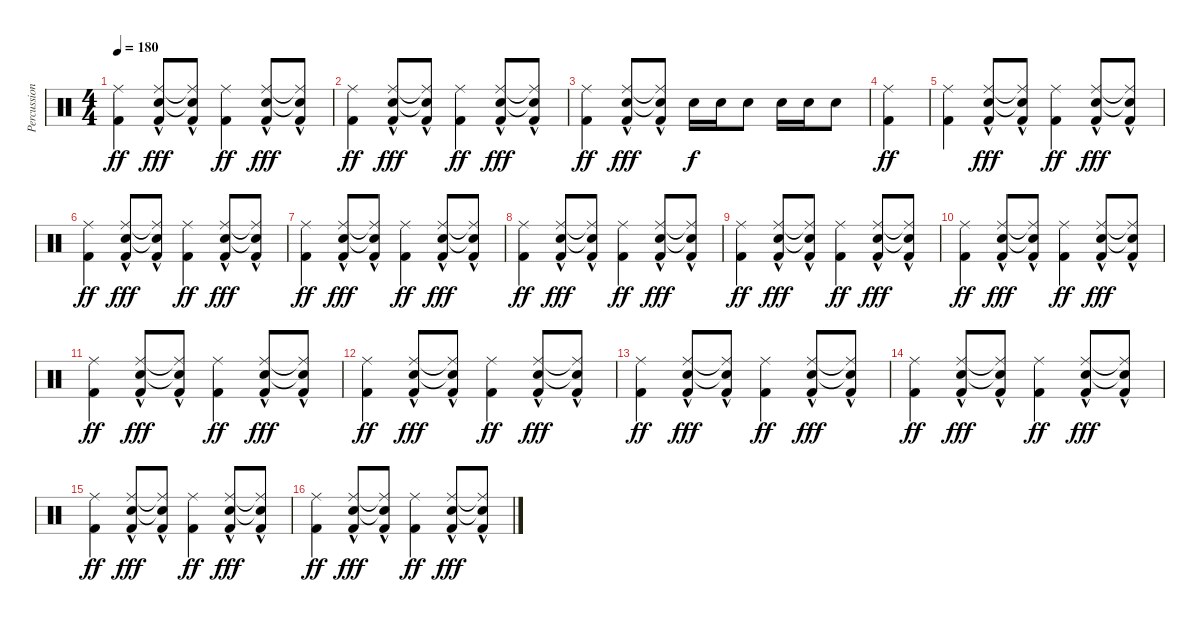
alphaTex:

\track ("Percussion" "Percussion") {instrument percussion}
\staff {score}
\articulation defaults
\ts (4 4)
\tempo 180
\clef neutral
\ks c
("Kick (hit) 2" "Ride (middle)").4{dy ff} ("Electric Snare (hit)" "Ride (middle)" "Kick (hit) 2"{hac}).8{dy fff} ("Electric Snare (hit)"{t} "Ride (middle)"{t} "Kick (hit) 2"{hac}).8 ("Kick (hit) 2" "Ride (middle)").4{dy ff} ("Electric Snare (hit)" "Ride (middle)" "Kick (hit) 2"{hac}).8{dy fff} ("Electric Snare (hit)"{t} "Ride (middle)"{t} "Kick (hit) 2"{hac}).8 |
("Kick (hit) 2" "Ride (middle)").4{dy ff} ("Electric Snare (hit)" "Ride (middle)" "Kick (hit) 2"{hac}).8{dy fff} ("Electric Snare (hit)"{t} "Ride (middle)"{t} "Kick (hit) 2"{hac}).8 ("Kick (hit) 2" "Ride (middle)").4{dy ff} ("Electric Snare (hit)" "Ride (middle)" "Kick (hit) 2"{hac}).8{dy fff} ("Electric Snare (hit)"{t} "Ride (middle)"{t} "Kick (hit) 2"{hac}).8 |
("Kick (hit) 2" "Ride (middle)").4{dy ff} ("Electric Snare (hit)" "Ride (middle)" "Kick (hit) 2"{hac}).8{dy fff} ("Electric Snare (hit)"{t} "Ride (middle)"{t} "Kick (hit) 2"{hac}).8 "Electric Snare (hit)".16{dy f} "Electric Snare (hit)".16 "Electric Snare (hit)".8 "Electric Snare (hit)".16 "Electric Snare (hit)".16 "Electric Snare (hit)".8 |
("Kick (hit) 2" "Ride (middle)").4{dy ff} |
("Kick (hit) 2" "Ride (middle)").4 ("Electric Snare (hit)" "Ride (middle)" "Kick (hit) 2"{hac}).8{dy fff} ("Electric Snare (hit)"{t} "Ride (middle)"{t} "Kick (hit) 2"{hac}).8 ("Kick (hit) 2" "Ride (middle)").4{dy ff} ("Electric Snare (hit)" "Ride (middle)" "Kick (hit) 2"{hac}).8{dy fff} ("Electric Snare (hit)"{t} "Ride (middle)"{t} "Kick (hit) 2"{hac}).8 |
("Kick (hit) 2" "Ride (middle)").4{dy ff} ("Electric Snare (hit)" "Ride (middle)" "Kick (hit) 2"{hac}).8{dy fff} ("Electric Snare (hit)"{t} "Ride (middle)"{t} "Kick (hit) 2"{hac}).8 ("Kick (hit) 2" "Ride (middle)").4{dy ff} ("Electric Snare (hit)" "Ride (middle)" "Kick (hit) 2"{hac}).8{dy fff} ("Electric Snare (hit)"{t} "Ride (middle)"{t} "Kick (hit) 2"{hac}).8 |
("Kick (hit) 2" "Ride (middle)").4{dy ff} ("Electric Snare (hit)" "Ride (middle)" "Kick (hit) 2"{hac}).8{dy fff} ("Electric Snare (hit)"{t} "Ride (middle)"{t} "Kick (hit) 2"{hac}).8 ("Kick (hit) 2" "Ride (middle)").4{dy ff} ("Electric Snare (hit)" "Ride (middle)" "Kick (hit) 2"{hac}).8{dy fff} ("Electric Snare (hit)"{t} "Ride (middle)"{t} "Kick (hit) 2"{hac}).8 |
("Kick (hit) 2" "Ride (middle)").4{dy ff} ("Electric Snare (hit)" "Ride (middle)" "Kick (hit) 2"{hac}).8{dy fff} ("Electric Snare (hit)"{t} "Ride (middle)"{t} "Kick (hit) 2"{hac}).8 ("Kick (hit) 2" "Ride (middle)").4{dy ff} ("Electric Snare (hit)" "Ride (middle)" "Kick (hit) 2"{hac}).8{dy fff} ("Electric Snare (hit)"{t} "Ride (middle)"{t} "Kick (hit) 2"{hac}).8 |
("Kick (hit) 2" "Ride (middle)").4{dy ff} ("Electric Snare (hit)" "Ride (middle)" "Kick (hit) 2"{hac}).8{dy fff} ("Electric Snare (hit)"{t} "Ride (middle)"{t} "Kick (hit) 2"{hac}).8 ("Kick (hit) 2" "Ride (middle)").4{dy ff} ("Electric Snare (hit)" "Ride (middle)" "Kick (hit) 2"{hac}).8{dy fff} ("Electric Snare (hit)"{t} "Ride (middle)"{t} "Kick (hit) 2"{hac}).8 |
("Kick (hit) 2" "Ride (middle)").4{dy ff} ("Electric Snare (hit)" "Ride (middle)" "Kick (hit) 2"{hac}).8{dy fff} ("Electric Snare (hit)"{t} "Ride (middle)"{t} "Kick (hit) 2"{hac}).8 ("Kick (hit) 2" "Ride (middle)").4{dy ff} ("Electric Snare (hit)" "Ride (middle)" "Kick (hit) 2"{hac}).8{dy fff} ("Electric Snare (hit)"{t} "Ride (middle)"{t} "Kick (hit) 2"{hac}).8 |
("Kick (hit) 2" "Ride (middle)").4{dy ff} ("Electric Snare (hit)" "Ride (middle)" "Kick (hit) 2"{hac}).8{dy fff} ("Electric Snare (hit)"{t} "Ride (middle)"{t} "Kick (hit) 2"{hac}).8 ("Kick (hit) 2" "Ride (middle)").4{dy ff} ("Electric Snare (hit)" "Ride (middle)" "Kick (hit) 2"{hac}).8{dy fff} ("Electric Snare (hit)"{t} "Ride (middle)"{t} "Kick (hit) 2"{hac}).8 |
("Kick (hit) 2" "Ride (middle)").4{dy ff} ("Electric Snare (hit)" "Ride (middle)" "Kick (hit) 2"{hac}).8{dy fff} ("Electric Snare (hit)"{t} "Ride (middle)"{t} "Kick (hit) 2"{hac}).8 ("Kick (hit) 2" "Ride (middle)").4{dy ff} ("Electric Snare (hit)" "Ride (middle)" "Kick (hit) 2"{hac}).8{dy fff} ("Electric Snare (hit)"{t} "Ride (middle)"{t} "Kick (hit) 2"{hac}).8 |
("Kick (hit) 2" "Ride (middle)").4{dy ff} ("Electric Snare (hit)" "Ride (middle)" "Kick (hit) 2"{hac}).8{dy fff} ("Electric Snare (hit)"{t} "Ride (middle)"{t} "Kick (hit) 2"{hac}).8 ("Kick (hit) 2" "Ride (middle)").4{dy ff} ("Electric Snare (hit)" "Ride (middle)" "Kick (hit) 2"{hac}).8{dy fff} ("Electric Snare (hit)"{t} "Ride (middle)"{t} "Kick (hit) 2"{hac}).8 |
("Kick (hit) 2" "Ride (middle)").4{dy ff} ("Electric Snare (hit)" "Ride (middle)" "Kick (hit) 2"{hac}).8{dy fff} ("Electric Snare (hit)"{t} "Ride (middle)"{t} "Kick (hit) 2"{hac}).8 ("Kick (hit) 2" "Ride (middle)").4{dy ff} ("Electric Snare (hit)" "Ride (middle)" "Kick (hit) 2"{hac}).8{dy fff} ("Electric Snare (hit)"{t} "Ride (middle)"{t} "Kick (hit) 2"{hac}).8 |
("Kick (hit) 2" "Ride (middle)").4{dy ff} ("Electric Snare (hit)" "Ride (middle)" "Kick (hit) 2"{hac}).8{dy fff} ("Electric Snare (hit)"{t} "Ride (middle)"{t} "Kick (hit) 2"{hac}).8 ("Kick (hit) 2" "Ride (middle)").4{dy ff} ("Electric Snare (hit)" "Ride (middle)" "Kick (hit) 2"{hac}).8{dy fff} ("Electric Snare (hit)"{t} "Ride (middle)"{t} "Kick (hit) 2"{hac}).8 |
("Kick (hit) 2" "Ride (middle)").4{dy ff} ("Electric Snare (hit)" "Ride (middle)" "Kick (hit) 2"{hac}).8{dy fff} ("Electric Snare (hit)"{t} "Ride (middle)"{t} "Kick (hit) 2"{hac}).8 ("Kick (hit) 2" "Ride (middle)").4{dy ff} ("Electric Snare (hit)" "Ride (middle)" "Kick (hit) 2"{hac}).8{dy fff} ("Electric Snare (hit)"{t} "Ride (middle)"{t} "Kick (hit) 2"{hac}).8
